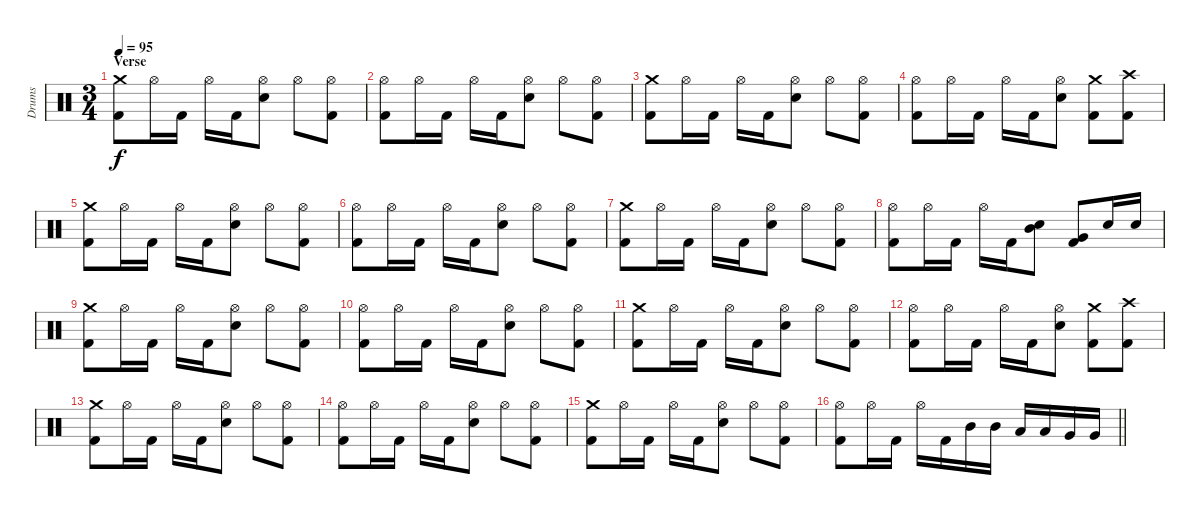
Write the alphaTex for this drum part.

\track ("Drums" "Drums") {instrument percussion}
\staff {score}
\articulation defaults
\ts (3 4)
\section ("" "Verse")
\tempo 95
\clef neutral
\ks c
("Crash medium (hit)" "Kick (hit) 2").8{dy f} "Hi-Hat (open)".16 "Kick (hit) 2".16 "Hi-Hat (open)".16 "Kick (hit) 2".16 ("Hi-Hat (open)" "Electric Snare (hit)").8 "Hi-Hat (open)".8 ("Hi-Hat (open)" "Kick (hit) 2").8 |
("Hi-Hat (open)" "Kick (hit) 2").8 "Hi-Hat (open)".16 "Kick (hit) 2".16 "Hi-Hat (open)".16 "Kick (hit) 2".16 ("Hi-Hat (open)" "Electric Snare (hit)").8 "Hi-Hat (open)".8 ("Hi-Hat (open)" "Kick (hit) 2").8 |
("Crash medium (hit)" "Kick (hit) 2").8 "Hi-Hat (open)".16 "Kick (hit) 2".16 "Hi-Hat (open)".16 "Kick (hit) 2".16 ("Hi-Hat (open)" "Electric Snare (hit)").8 "Hi-Hat (open)".8 ("Hi-Hat (open)" "Kick (hit) 2").8 |
("Hi-Hat (open)" "Kick (hit) 2").8 "Hi-Hat (open)".16 "Kick (hit) 2".16 "Hi-Hat (open)".16 "Kick (hit) 2".16 ("Hi-Hat (open)" "Electric Snare (hit)").8 ("Crash medium (hit)" "Kick (hit) 2").8 ("Crash high (hit)" "Kick (hit) 2").8 |
("Crash medium (hit)" "Kick (hit) 2").8 "Hi-Hat (open)".16 "Kick (hit) 2".16 "Hi-Hat (open)".16 "Kick (hit) 2".16 ("Hi-Hat (open)" "Electric Snare (hit)").8 "Hi-Hat (open)".8 ("Hi-Hat (open)" "Kick (hit) 2").8 |
("Hi-Hat (open)" "Kick (hit) 2").8 "Hi-Hat (open)".16 "Kick (hit) 2".16 "Hi-Hat (open)".16 "Kick (hit) 2".16 ("Hi-Hat (open)" "Electric Snare (hit)").8 "Hi-Hat (open)".8 ("Hi-Hat (open)" "Kick (hit) 2").8 |
("Crash medium (hit)" "Kick (hit) 2").8 "Hi-Hat (open)".16 "Kick (hit) 2".16 "Hi-Hat (open)".16 "Kick (hit) 2".16 ("Hi-Hat (open)" "Electric Snare (hit)").8 "Hi-Hat (open)".8 ("Hi-Hat (open)" "Kick (hit) 2").8 |
("Hi-Hat (open)" "Kick (hit) 2").8 "Hi-Hat (open)".16 "Kick (hit) 2".16 "Hi-Hat (open)".16 "Kick (hit) 2".16 ("Electric Snare (hit)" "Mid Tom (hit)").8 ("Very Low Tom (hit)" "Kick (hit) 2").8 "Electric Snare (hit)".16 "Electric Snare (hit)".16 |
("Crash medium (hit)" "Kick (hit) 2").8 "Hi-Hat (open)".16 "Kick (hit) 2".16 "Hi-Hat (open)".16 "Kick (hit) 2".16 ("Hi-Hat (open)" "Electric Snare (hit)").8 "Hi-Hat (open)".8 ("Hi-Hat (open)" "Kick (hit) 2").8 |
("Hi-Hat (open)" "Kick (hit) 2").8 "Hi-Hat (open)".16 "Kick (hit) 2".16 "Hi-Hat (open)".16 "Kick (hit) 2".16 ("Hi-Hat (open)" "Electric Snare (hit)").8 "Hi-Hat (open)".8 ("Hi-Hat (open)" "Kick (hit) 2").8 |
("Crash medium (hit)" "Kick (hit) 2").8 "Hi-Hat (open)".16 "Kick (hit) 2".16 "Hi-Hat (open)".16 "Kick (hit) 2".16 ("Hi-Hat (open)" "Electric Snare (hit)").8 "Hi-Hat (open)".8 ("Hi-Hat (open)" "Kick (hit) 2").8 |
("Hi-Hat (open)" "Kick (hit) 2").8 "Hi-Hat (open)".16 "Kick (hit) 2".16 "Hi-Hat (open)".16 "Kick (hit) 2".16 ("Hi-Hat (open)" "Electric Snare (hit)").8 ("Crash medium (hit)" "Kick (hit) 2").8 ("Crash high (hit)" "Kick (hit) 2").8 |
("Crash medium (hit)" "Kick (hit) 2").8 "Hi-Hat (open)".16 "Kick (hit) 2".16 "Hi-Hat (open)".16 "Kick (hit) 2".16 ("Hi-Hat (open)" "Electric Snare (hit)").8 "Hi-Hat (open)".8 ("Hi-Hat (open)" "Kick (hit) 2").8 |
("Hi-Hat (open)" "Kick (hit) 2").8 "Hi-Hat (open)".16 "Kick (hit) 2".16 "Hi-Hat (open)".16 "Kick (hit) 2".16 ("Hi-Hat (open)" "Electric Snare (hit)").8 "Hi-Hat (open)".8 ("Hi-Hat (open)" "Kick (hit) 2").8 |
("Crash medium (hit)" "Kick (hit) 2").8 "Hi-Hat (open)".16 "Kick (hit) 2".16 "Hi-Hat (open)".16 "Kick (hit) 2".16 ("Hi-Hat (open)" "Electric Snare (hit)").8 "Hi-Hat (open)".8 ("Hi-Hat (open)" "Kick (hit) 2").8 |
\barLineRight lightlight
("Hi-Hat (open)" "Kick (hit) 2").8 "Hi-Hat (open)".16 "Kick (hit) 2".16 "Hi-Hat (open)".16 "Kick (hit) 2".16 "Mid Tom (hit)".16 "Mid Tom (hit)".16 "Low Tom (hit)".16 "Low Tom (hit)".16 "Very Low Tom (hit)".16 "Very Low Tom (hit)".16
